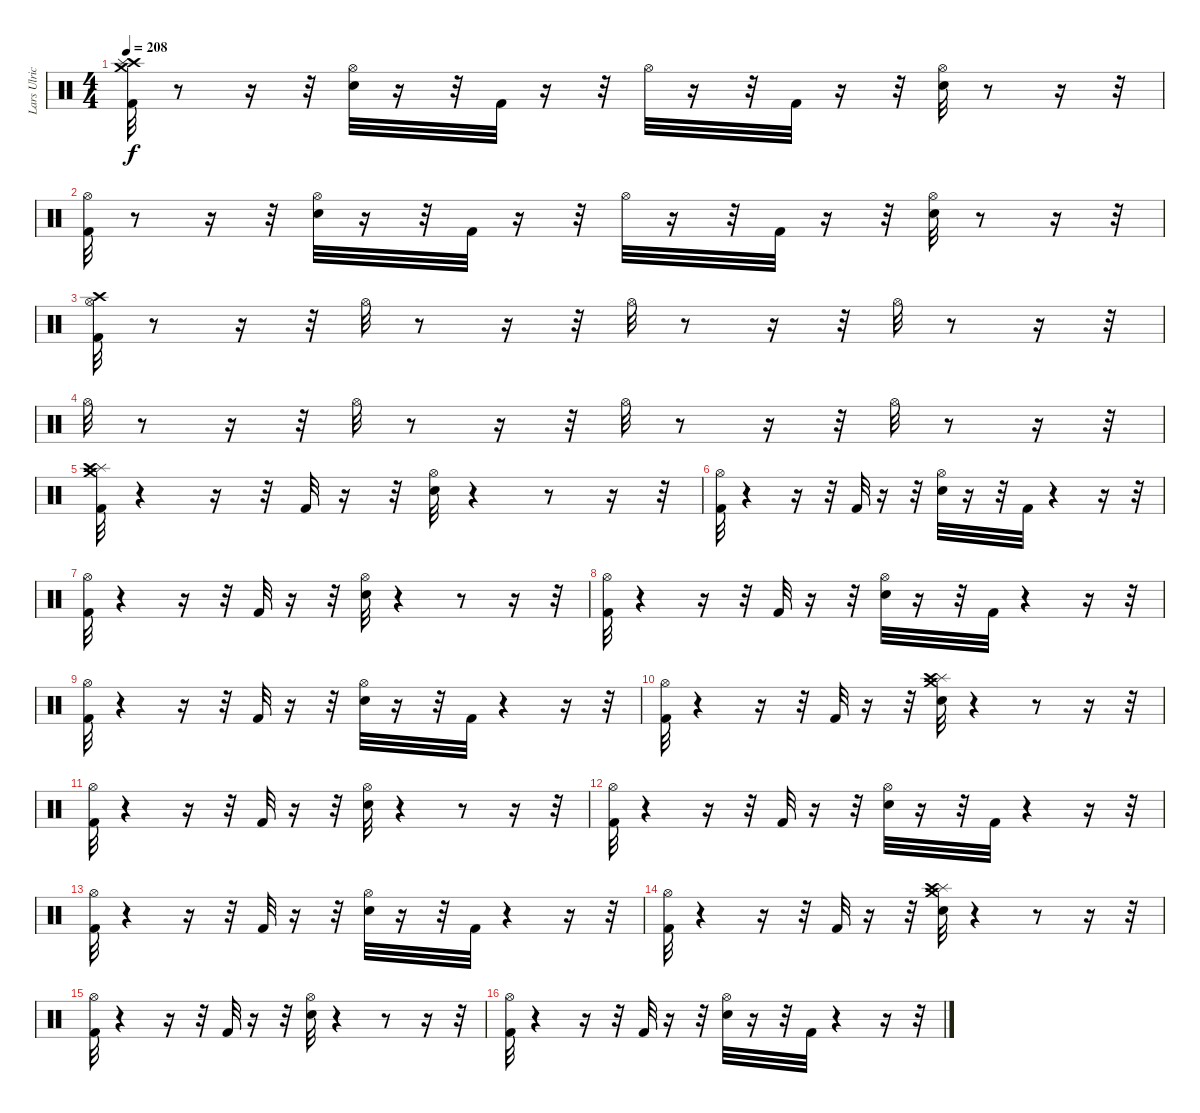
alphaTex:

\track ("Lars Ulrich (Drums)" "Lars Ulric") {instrument percussion}
\staff {score}
\articulation defaults
\ts (4 4)
\tempo 208
\clef neutral
\ks c
("Kick (hit) 2" "Crash high (hit)" "Crash medium (hit)" "Splash (hit)").32{dy f} r.8 r.16 r.32 ("Snare (hit) 2" "Hi-Hat (open)").32 r.16 r.32 "Kick (hit) 2".32 r.16 r.32 "Hi-Hat (open)".32 r.16 r.32 "Kick (hit) 2".32 r.16 r.32 ("Snare (hit) 2" "Hi-Hat (open)").32 r.8 r.16 r.32 |
("Kick (hit) 2" "Hi-Hat (open)").32 r.8 r.16 r.32 ("Snare (hit) 2" "Hi-Hat (open)").32 r.16 r.32 "Kick (hit) 2".32 r.16 r.32 "Hi-Hat (open)".32 r.16 r.32 "Kick (hit) 2".32 r.16 r.32 ("Snare (hit) 2" "Hi-Hat (open)").32 r.8 r.16 r.32 |
("Hi-Hat (open)" "Crash high (hit)" "Kick (hit) 2").32 r.8 r.16 r.32 "Hi-Hat (open)".32 r.8 r.16 r.32 "Hi-Hat (open)".32 r.8 r.16 r.32 "Hi-Hat (open)".32 r.8 r.16 r.32 |
"Hi-Hat (open)".32 r.8 r.16 r.32 "Hi-Hat (open)".32 r.8 r.16 r.32 "Hi-Hat (open)".32 r.8 r.16 r.32 "Hi-Hat (open)".32 r.8 r.16 r.32 |
("Crash medium (hit)" "Splash (hit)" "Crash high (hit)" "Kick (hit) 2").32 r.4 r.16 r.32 "Kick (hit) 2".32 r.16 r.32 ("Snare (hit) 2" "Hi-Hat (open)").32 r.4 r.8 r.16 r.32 |
("Kick (hit) 2" "Hi-Hat (open)").32 r.4 r.16 r.32 "Kick (hit) 2".32 r.16 r.32 ("Snare (hit) 2" "Hi-Hat (open)").32 r.16 r.32 "Kick (hit) 2".32 r.4 r.16 r.32 |
("Kick (hit) 2" "Hi-Hat (open)").32 r.4 r.16 r.32 "Kick (hit) 2".32 r.16 r.32 ("Snare (hit) 2" "Hi-Hat (open)").32 r.4 r.8 r.16 r.32 |
("Kick (hit) 2" "Hi-Hat (open)").32 r.4 r.16 r.32 "Kick (hit) 2".32 r.16 r.32 ("Snare (hit) 2" "Hi-Hat (open)").32 r.16 r.32 "Kick (hit) 2".32 r.4 r.16 r.32 |
("Kick (hit) 2" "Hi-Hat (open)").32 r.4 r.16 r.32 "Kick (hit) 2".32 r.16 r.32 ("Snare (hit) 2" "Hi-Hat (open)").32 r.16 r.32 "Kick (hit) 2".32 r.4 r.16 r.32 |
("Kick (hit) 2" "Hi-Hat (open)").32 r.4 r.16 r.32 "Kick (hit) 2".32 r.16 r.32 ("Splash (hit)" "Crash medium (hit)" "Crash high (hit)" "Snare (hit) 2").32 r.4 r.8 r.16 r.32 |
("Kick (hit) 2" "Hi-Hat (open)").32 r.4 r.16 r.32 "Kick (hit) 2".32 r.16 r.32 ("Snare (hit) 2" "Hi-Hat (open)").32 r.4 r.8 r.16 r.32 |
("Kick (hit) 2" "Hi-Hat (open)").32 r.4 r.16 r.32 "Kick (hit) 2".32 r.16 r.32 ("Snare (hit) 2" "Hi-Hat (open)").32 r.16 r.32 "Kick (hit) 2".32 r.4 r.16 r.32 |
("Kick (hit) 2" "Hi-Hat (open)").32 r.4 r.16 r.32 "Kick (hit) 2".32 r.16 r.32 ("Snare (hit) 2" "Hi-Hat (open)").32 r.16 r.32 "Kick (hit) 2".32 r.4 r.16 r.32 |
("Kick (hit) 2" "Hi-Hat (open)").32 r.4 r.16 r.32 "Kick (hit) 2".32 r.16 r.32 ("Splash (hit)" "Crash medium (hit)" "Crash high (hit)" "Snare (hit) 2").32 r.4 r.8 r.16 r.32 |
("Kick (hit) 2" "Hi-Hat (open)").32 r.4 r.16 r.32 "Kick (hit) 2".32 r.16 r.32 ("Snare (hit) 2" "Hi-Hat (open)").32 r.4 r.8 r.16 r.32 |
("Kick (hit) 2" "Hi-Hat (open)").32 r.4 r.16 r.32 "Kick (hit) 2".32 r.16 r.32 ("Snare (hit) 2" "Hi-Hat (open)").32 r.16 r.32 "Kick (hit) 2".32 r.4 r.16 r.32
